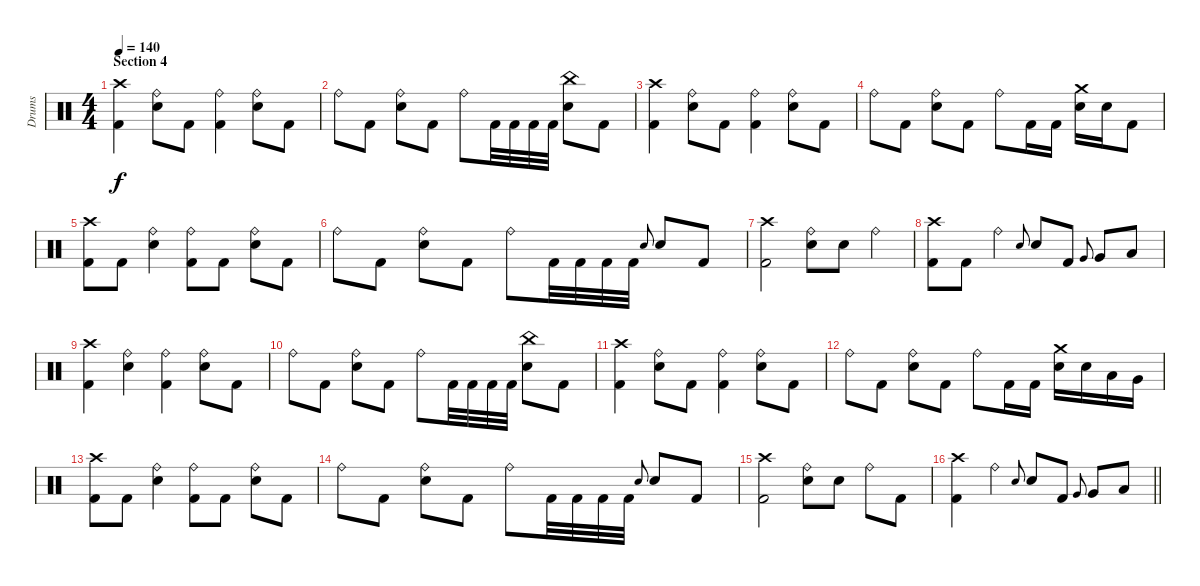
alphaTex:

\track ("Drums" "Drums") {instrument percussion}
\staff {score}
\articulation defaults
\ts (4 4)
\section ("" "Section 4")
\tempo 140
\clef neutral
\ks c
("Crash high (hit)" "Kick (hit) 2").4{dy f} ("Ride (bell)" "Snare (hit) 2").8 "Kick (hit) 2".8 ("Ride (bell)" "Kick (hit) 2").4 ("Ride (bell)" "Snare (hit) 2").8 "Kick (hit) 2".8 |
"Ride (bell)".8 "Kick (hit) 2".8 ("Ride (bell)" "Snare (hit) 2").8 "Kick (hit) 2".8 "Ride (bell)".8 "Kick (hit) 2".32 "Kick (hit) 2".32 "Kick (hit) 2".32 "Kick (hit) 2".32 ("China (hit)" "Snare (hit) 2").8 "Kick (hit) 2".8 |
("Crash high (hit)" "Kick (hit) 2").4 ("Ride (bell)" "Snare (hit) 2").8 "Kick (hit) 2".8 ("Ride (bell)" "Kick (hit) 2").4 ("Ride (bell)" "Snare (hit) 2").8 "Kick (hit) 2".8 |
"Ride (bell)".8 "Kick (hit) 2".8 ("Ride (bell)" "Snare (hit) 2").8 "Kick (hit) 2".8 "Ride (bell)".8 "Kick (hit) 2".16 "Kick (hit) 2".16 ("Crash medium (hit)" "Snare (hit) 2").16 "Snare (hit) 2".16 "Kick (hit) 2".8 |
("Crash high (hit)" "Kick (hit) 2").8 "Kick (hit) 2".8 ("Ride (bell)" "Snare (hit) 2").4 ("Ride (bell)" "Kick (hit) 2").8 "Kick (hit) 2".8 ("Ride (bell)" "Snare (hit) 2").8 "Kick (hit) 2".8 |
"Ride (bell)".8 "Kick (hit) 2".8 ("Ride (bell)" "Snare (hit) 2").8 "Kick (hit) 2".8 "Ride (bell)".8 "Kick (hit) 2".32 "Kick (hit) 2".32 "Kick (hit) 2".32 "Kick (hit) 2".32 "Snare (hit) 2"{h}.8{gr onbeat} "Snare (hit) 2".8 "Kick (hit) 2".8 |
("Crash high (hit)" "Kick (hit) 2").2 ("Ride (bell)" "Snare (hit) 2").8 "Snare (hit) 2".8 "Ride (bell)".4 |
("Crash high (hit)" "Kick (hit) 2").8 "Kick (hit) 2".8 "Ride (bell)".4 "Snare (hit) 2"{h}.8{gr onbeat} "Snare (hit) 2".8 "Kick (hit) 2".8 "Very Low Tom (hit)"{h}.8{gr onbeat} "Very Low Tom (hit)".8 "Low Floor Tom (hit)".8 |
("Crash high (hit)" "Kick (hit) 2").4 ("Ride (bell)" "Snare (hit) 2").4 ("Ride (bell)" "Kick (hit) 2").4 ("Ride (bell)" "Snare (hit) 2").8 "Kick (hit) 2".8 |
"Ride (bell)".8 "Kick (hit) 2".8 ("Ride (bell)" "Snare (hit) 2").8 "Kick (hit) 2".8 "Ride (bell)".8 "Kick (hit) 2".32 "Kick (hit) 2".32 "Kick (hit) 2".32 "Kick (hit) 2".32 ("China (hit)" "Snare (hit) 2").8 "Kick (hit) 2".8 |
("Crash high (hit)" "Kick (hit) 2").4 ("Ride (bell)" "Snare (hit) 2").8 "Kick (hit) 2".8 ("Ride (bell)" "Kick (hit) 2").4 ("Ride (bell)" "Snare (hit) 2").8 "Kick (hit) 2".8 |
"Ride (bell)".8 "Kick (hit) 2".8 ("Ride (bell)" "Snare (hit) 2").8 "Kick (hit) 2".8 "Ride (bell)".8 "Kick (hit) 2".16 "Kick (hit) 2".16 ("Crash medium (hit)" "Snare (hit) 2").16 "Snare (hit) 2".16 "Low Tom (hit)".16 "Very Low Tom (hit)".16 |
("Crash high (hit)" "Kick (hit) 2").8 "Kick (hit) 2".8 ("Ride (bell)" "Snare (hit) 2").4 ("Ride (bell)" "Kick (hit) 2").8 "Kick (hit) 2".8 ("Ride (bell)" "Snare (hit) 2").8 "Kick (hit) 2".8 |
"Ride (bell)".8 "Kick (hit) 2".8 ("Ride (bell)" "Snare (hit) 2").8 "Kick (hit) 2".8 "Ride (bell)".8 "Kick (hit) 2".32 "Kick (hit) 2".32 "Kick (hit) 2".32 "Kick (hit) 2".32 "Snare (hit) 2"{h}.8{gr onbeat} "Snare (hit) 2".8 "Kick (hit) 2".8 |
("Crash high (hit)" "Kick (hit) 2").2 ("Ride (bell)" "Snare (hit) 2").8 "Snare (hit) 2".8 "Ride (bell)".8 "Kick (hit) 2".8 |
\barLineRight lightlight
("Crash high (hit)" "Kick (hit) 2").4 "Ride (bell)".4 "Snare (hit) 2"{h}.8{gr onbeat} "Snare (hit) 2".8 "Kick (hit) 2".8 "Very Low Tom (hit)"{h}.8{gr onbeat} "Very Low Tom (hit)".8 "Low Floor Tom (hit)".8
